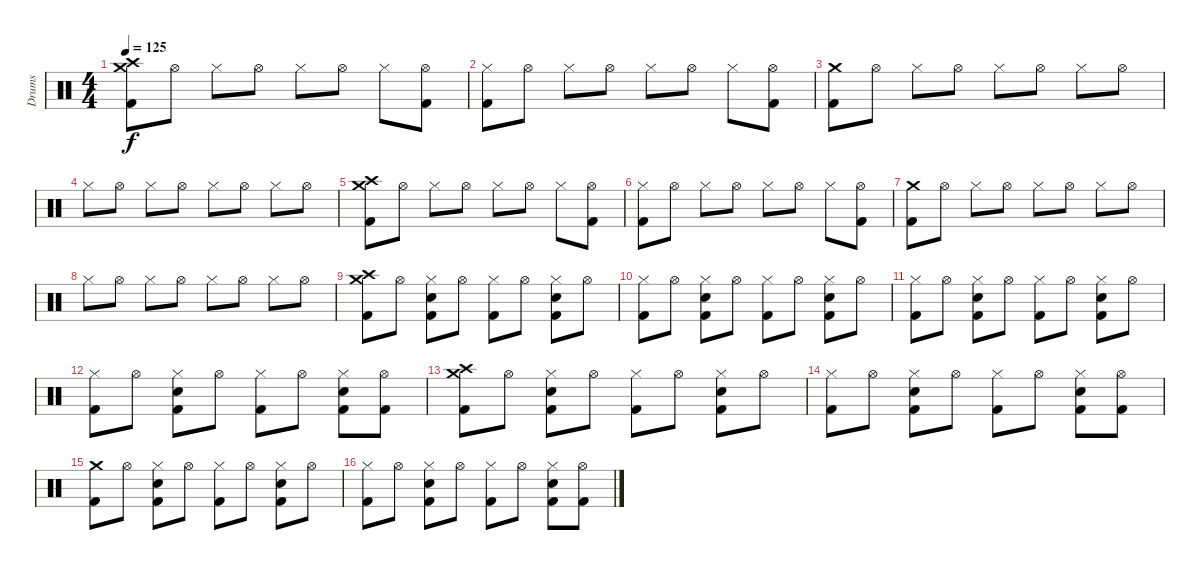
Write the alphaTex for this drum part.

\track ("Drums" "Drums") {instrument percussion}
\staff {score}
\articulation defaults
\ts (4 4)
\tempo 125
\clef neutral
\ks c
("Crash medium (hit)" "Crash high (hit)" "Kick (hit) 2").8{dy f} "Hi-Hat (open)".8 "Hi-Hat (closed)".8 "Hi-Hat (open)".8 "Hi-Hat (closed)".8 "Hi-Hat (open)".8 "Hi-Hat (closed)".8 ("Hi-Hat (open)" "Kick (hit) 2").8 |
("Hi-Hat (closed)" "Kick (hit) 2").8 "Hi-Hat (open)".8 "Hi-Hat (closed)".8 "Hi-Hat (open)".8 "Hi-Hat (closed)".8 "Hi-Hat (open)".8 "Hi-Hat (closed)".8 ("Hi-Hat (open)" "Kick (hit) 2").8 |
("Crash medium (hit)" "Kick (hit) 2").8 "Hi-Hat (open)".8 "Hi-Hat (closed)".8 "Hi-Hat (open)".8 "Hi-Hat (closed)".8 "Hi-Hat (open)".8 "Hi-Hat (closed)".8 "Hi-Hat (open)".8 |
"Hi-Hat (closed)".8 "Hi-Hat (open)".8 "Hi-Hat (closed)".8 "Hi-Hat (open)".8 "Hi-Hat (closed)".8 "Hi-Hat (open)".8 "Hi-Hat (closed)".8 "Hi-Hat (open)".8 |
("Crash medium (hit)" "Crash high (hit)" "Kick (hit) 2").8 "Hi-Hat (open)".8 "Hi-Hat (closed)".8 "Hi-Hat (open)".8 "Hi-Hat (closed)".8 "Hi-Hat (open)".8 "Hi-Hat (closed)".8 ("Hi-Hat (open)" "Kick (hit) 2").8 |
("Hi-Hat (closed)" "Kick (hit) 2").8 "Hi-Hat (open)".8 "Hi-Hat (closed)".8 "Hi-Hat (open)".8 "Hi-Hat (closed)".8 "Hi-Hat (open)".8 "Hi-Hat (closed)".8 ("Hi-Hat (open)" "Kick (hit) 2").8 |
("Crash medium (hit)" "Kick (hit) 2").8 "Hi-Hat (open)".8 "Hi-Hat (closed)".8 "Hi-Hat (open)".8 "Hi-Hat (closed)".8 "Hi-Hat (open)".8 "Hi-Hat (closed)".8 "Hi-Hat (open)".8 |
"Hi-Hat (closed)".8 "Hi-Hat (open)".8 "Hi-Hat (closed)".8 "Hi-Hat (open)".8 "Hi-Hat (closed)".8 "Hi-Hat (open)".8 "Hi-Hat (closed)".8 "Hi-Hat (open)".8 |
("Crash medium (hit)" "Crash high (hit)" "Kick (hit) 2").8 "Hi-Hat (open)".8 ("Hi-Hat (closed)" "Electric Snare (hit)" "Kick (hit) 2").8 "Hi-Hat (open)".8 ("Hi-Hat (closed)" "Kick (hit) 2").8 "Hi-Hat (open)".8 ("Hi-Hat (closed)" "Electric Snare (hit)" "Kick (hit) 2").8 "Hi-Hat (open)".8 |
("Hi-Hat (closed)" "Kick (hit) 2").8 "Hi-Hat (open)".8 ("Hi-Hat (closed)" "Electric Snare (hit)" "Kick (hit) 2").8 "Hi-Hat (open)".8 ("Hi-Hat (closed)" "Kick (hit) 2").8 "Hi-Hat (open)".8 ("Hi-Hat (closed)" "Electric Snare (hit)" "Kick (hit) 2").8 "Hi-Hat (open)".8 |
("Hi-Hat (closed)" "Kick (hit) 2").8 "Hi-Hat (open)".8 ("Hi-Hat (closed)" "Electric Snare (hit)" "Kick (hit) 2").8 "Hi-Hat (open)".8 ("Hi-Hat (closed)" "Kick (hit) 2").8 "Hi-Hat (open)".8 ("Hi-Hat (closed)" "Electric Snare (hit)" "Kick (hit) 2").8 "Hi-Hat (open)".8 |
("Hi-Hat (closed)" "Kick (hit) 2").8 "Hi-Hat (open)".8 ("Hi-Hat (closed)" "Electric Snare (hit)" "Kick (hit) 2").8 "Hi-Hat (open)".8 ("Hi-Hat (closed)" "Kick (hit) 2").8 "Hi-Hat (open)".8 ("Hi-Hat (closed)" "Electric Snare (hit)" "Kick (hit) 2").8 ("Hi-Hat (open)" "Kick (hit) 2").8 |
("Crash medium (hit)" "Crash high (hit)" "Kick (hit) 2").8 "Hi-Hat (open)".8 ("Hi-Hat (closed)" "Electric Snare (hit)" "Kick (hit) 2").8 "Hi-Hat (open)".8 ("Hi-Hat (closed)" "Kick (hit) 2").8 "Hi-Hat (open)".8 ("Hi-Hat (closed)" "Electric Snare (hit)" "Kick (hit) 2").8 "Hi-Hat (open)".8 |
("Hi-Hat (closed)" "Kick (hit) 2").8 "Hi-Hat (open)".8 ("Hi-Hat (closed)" "Electric Snare (hit)" "Kick (hit) 2").8 "Hi-Hat (open)".8 ("Hi-Hat (closed)" "Kick (hit) 2").8 "Hi-Hat (open)".8 ("Hi-Hat (closed)" "Electric Snare (hit)" "Kick (hit) 2").8 ("Hi-Hat (open)" "Kick (hit) 2").8 |
("Crash medium (hit)" "Kick (hit) 2").8 "Hi-Hat (open)".8 ("Hi-Hat (closed)" "Electric Snare (hit)" "Kick (hit) 2").8 "Hi-Hat (open)".8 ("Hi-Hat (closed)" "Kick (hit) 2").8 "Hi-Hat (open)".8 ("Hi-Hat (closed)" "Electric Snare (hit)" "Kick (hit) 2").8 "Hi-Hat (open)".8 |
("Hi-Hat (closed)" "Kick (hit) 2").8 "Hi-Hat (open)".8 ("Hi-Hat (closed)" "Electric Snare (hit)" "Kick (hit) 2").8 "Hi-Hat (open)".8 ("Hi-Hat (closed)" "Kick (hit) 2").8 "Hi-Hat (open)".8 ("Hi-Hat (closed)" "Electric Snare (hit)" "Kick (hit) 2").8 ("Hi-Hat (open)" "Kick (hit) 2").8
